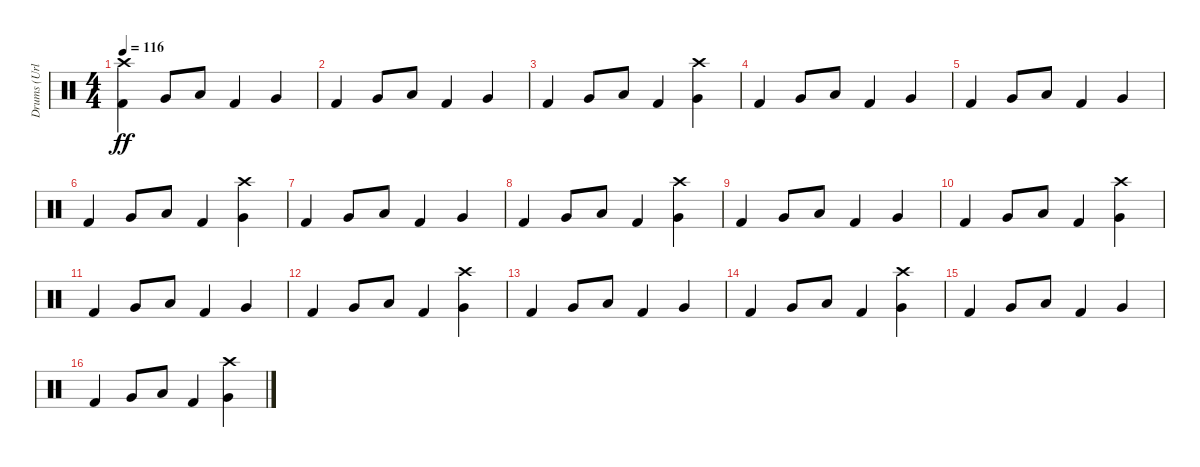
\track ("Drums (Urlich)" "Drums (Url") {instrument percussion}
\staff {score}
\articulation defaults
\ts (4 4)
\tempo 116
\clef neutral
\ks c
("Kick (hit) 2" "Crash high (hit)").4{dy ff} "Very Low Tom (hit)".8 "Low Floor Tom (hit)".8 "Kick (hit) 2".4 "Very Low Tom (hit)".4 |
"Kick (hit) 2".4 "Very Low Tom (hit)".8 "Low Floor Tom (hit)".8 "Kick (hit) 2".4 "Very Low Tom (hit)".4 |
"Kick (hit) 2".4 "Very Low Tom (hit)".8 "Low Floor Tom (hit)".8 "Kick (hit) 2".4 ("Very Low Tom (hit)" "Crash high (hit)").4 |
"Kick (hit) 2".4 "Very Low Tom (hit)".8 "Low Floor Tom (hit)".8 "Kick (hit) 2".4 "Very Low Tom (hit)".4 |
"Kick (hit) 2".4 "Very Low Tom (hit)".8 "Low Floor Tom (hit)".8 "Kick (hit) 2".4 "Very Low Tom (hit)".4 |
"Kick (hit) 2".4 "Very Low Tom (hit)".8 "Low Floor Tom (hit)".8 "Kick (hit) 2".4 ("Very Low Tom (hit)" "Crash high (hit)").4 |
"Kick (hit) 2".4 "Very Low Tom (hit)".8 "Low Floor Tom (hit)".8 "Kick (hit) 2".4 "Very Low Tom (hit)".4 |
"Kick (hit) 2".4 "Very Low Tom (hit)".8 "Low Floor Tom (hit)".8 "Kick (hit) 2".4 ("Very Low Tom (hit)" "Crash high (hit)").4 |
"Kick (hit) 2".4 "Very Low Tom (hit)".8 "Low Floor Tom (hit)".8 "Kick (hit) 2".4 "Very Low Tom (hit)".4 |
"Kick (hit) 2".4 "Very Low Tom (hit)".8 "Low Floor Tom (hit)".8 "Kick (hit) 2".4 ("Very Low Tom (hit)" "Crash high (hit)").4 |
"Kick (hit) 2".4 "Very Low Tom (hit)".8 "Low Floor Tom (hit)".8 "Kick (hit) 2".4 "Very Low Tom (hit)".4 |
"Kick (hit) 2".4 "Very Low Tom (hit)".8 "Low Floor Tom (hit)".8 "Kick (hit) 2".4 ("Very Low Tom (hit)" "Crash high (hit)").4 |
"Kick (hit) 2".4 "Very Low Tom (hit)".8 "Low Floor Tom (hit)".8 "Kick (hit) 2".4 "Very Low Tom (hit)".4 |
"Kick (hit) 2".4 "Very Low Tom (hit)".8 "Low Floor Tom (hit)".8 "Kick (hit) 2".4 ("Very Low Tom (hit)" "Crash high (hit)").4 |
"Kick (hit) 2".4 "Very Low Tom (hit)".8 "Low Floor Tom (hit)".8 "Kick (hit) 2".4 "Very Low Tom (hit)".4 |
"Kick (hit) 2".4 "Very Low Tom (hit)".8 "Low Floor Tom (hit)".8 "Kick (hit) 2".4 ("Very Low Tom (hit)" "Crash high (hit)").4
